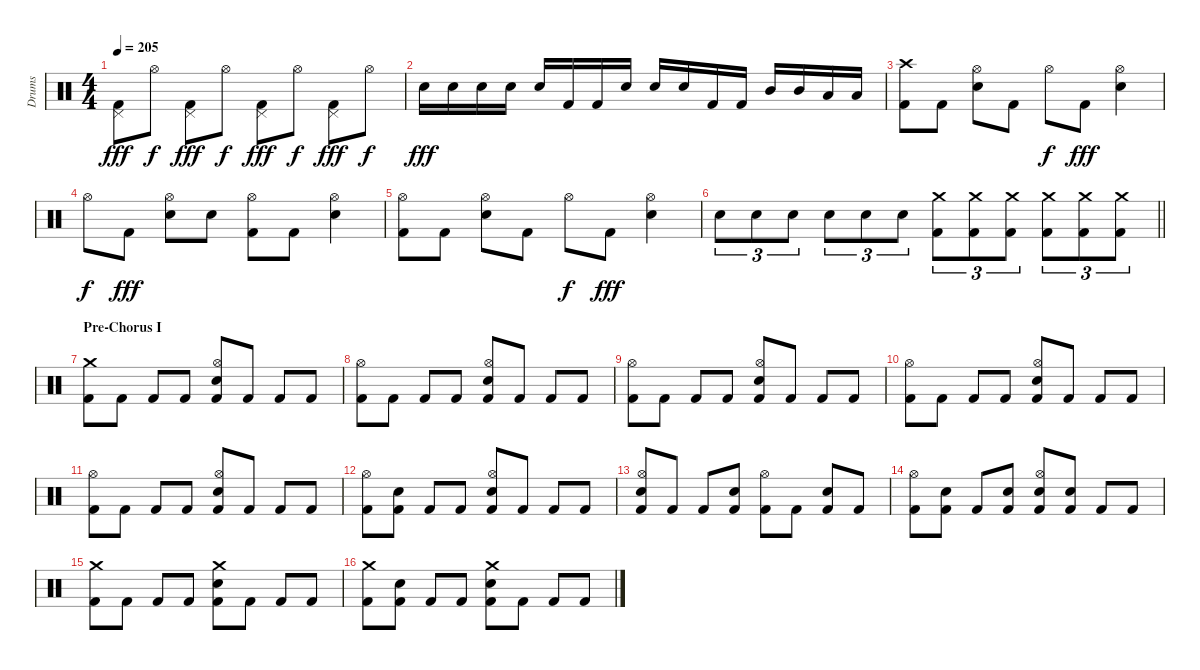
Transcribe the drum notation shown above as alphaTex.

\track ("Drums" "Drums") {instrument percussion}
\staff {score}
\articulation defaults
\ts (4 4)
\tempo 205
\clef neutral
\ks c
("Pedal Hi-Hat (hit)" "Kick (hit) 2").8{dy fff} "Hi-Hat (open)".8{dy f} ("Pedal Hi-Hat (hit)" "Kick (hit) 2").8{dy fff} "Hi-Hat (open)".8{dy f} ("Pedal Hi-Hat (hit)" "Kick (hit) 2").8{dy fff} "Hi-Hat (open)".8{dy f} ("Pedal Hi-Hat (hit)" "Kick (hit) 2").8{dy fff} "Hi-Hat (open)".8{dy f} |
"Snare (hit) 2".16{dy fff} "Snare (hit) 2".16 "Snare (hit) 2".16 "Snare (hit) 2".16 "Snare (hit) 2".16 "Kick (hit) 2".16 "Kick (hit) 2".16 "Snare (hit) 2".16 "Snare (hit) 2".16 "Snare (hit) 2".16 "Kick (hit) 2".16 "Kick (hit) 2".16 "Mid Tom (hit)".16 "Mid Tom (hit)".16 "Low Tom (hit)".16 "Low Tom (hit)".16 |
("Crash high (hit)" "Kick (hit) 2").8 "Kick (hit) 2".8 ("Hi-Hat (open)" "Snare (hit) 2").8 "Kick (hit) 2".8 "Hi-Hat (open)".8{dy f} "Kick (hit) 2".8{dy fff} ("Hi-Hat (open)" "Snare (hit) 2").4 |
"Hi-Hat (open)".8{dy f} "Kick (hit) 2".8{dy fff} ("Hi-Hat (open)" "Snare (hit) 2").8 "Snare (hit) 2".8 ("Hi-Hat (open)" "Kick (hit) 2").8 "Kick (hit) 2".8 ("Hi-Hat (open)" "Snare (hit) 2").4 |
("Hi-Hat (open)" "Kick (hit) 2").8 "Kick (hit) 2".8 ("Hi-Hat (open)" "Snare (hit) 2").8 "Kick (hit) 2".8 "Hi-Hat (open)".8{dy f} "Kick (hit) 2".8{dy fff} ("Hi-Hat (open)" "Snare (hit) 2").4 |
\barLineRight lightlight "Snare (hit) 2".8{tu (3 2)} "Snare (hit) 2".8{tu (3 2)} "Snare (hit) 2".8{tu (3 2)} "Snare (hit) 2".8{tu (3 2)} "Snare (hit) 2".8{tu (3 2)} "Snare (hit) 2".8{tu (3 2)}
("Crash medium (hit)" "Kick (hit) 2").8{tu (3 2)} ("Crash medium (hit)" "Kick (hit) 2").8{tu (3 2)} ("Crash medium (hit)" "Kick (hit) 2").8{tu (3 2)} ("Crash medium (hit)" "Kick (hit) 2").8{tu (3 2)} ("Crash medium (hit)" "Kick (hit) 2").8{tu (3 2)} ("Crash medium (hit)" "Kick (hit) 2").8{tu (3 2)} |
\section ("" "Pre-Chorus I")
("Crash medium (hit)" "Kick (hit) 2").8 "Kick (hit) 2".8 "Kick (hit) 2".8 "Kick (hit) 2".8 ("Hi-Hat (open)" "Snare (hit) 2" "Kick (hit) 2").8 "Kick (hit) 2".8 "Kick (hit) 2".8 "Kick (hit) 2".8 |
("Hi-Hat (open)" "Kick (hit) 2").8 "Kick (hit) 2".8 "Kick (hit) 2".8 "Kick (hit) 2".8 ("Hi-Hat (open)" "Snare (hit) 2" "Kick (hit) 2").8 "Kick (hit) 2".8 "Kick (hit) 2".8 "Kick (hit) 2".8 |
("Hi-Hat (open)" "Kick (hit) 2").8 "Kick (hit) 2".8 "Kick (hit) 2".8 "Kick (hit) 2".8 ("Hi-Hat (open)" "Snare (hit) 2" "Kick (hit) 2").8 "Kick (hit) 2".8 "Kick (hit) 2".8 "Kick (hit) 2".8 |
("Hi-Hat (open)" "Kick (hit) 2").8 "Kick (hit) 2".8 "Kick (hit) 2".8 "Kick (hit) 2".8 ("Hi-Hat (open)" "Snare (hit) 2" "Kick (hit) 2").8 "Kick (hit) 2".8 "Kick (hit) 2".8 "Kick (hit) 2".8 |
("Hi-Hat (open)" "Kick (hit) 2").8 "Kick (hit) 2".8 "Kick (hit) 2".8 "Kick (hit) 2".8 ("Hi-Hat (open)" "Snare (hit) 2" "Kick (hit) 2").8 "Kick (hit) 2".8 "Kick (hit) 2".8 "Kick (hit) 2".8 |
("Hi-Hat (open)" "Kick (hit) 2").8 ("Snare (hit) 2" "Kick (hit) 2").8 "Kick (hit) 2".8 "Kick (hit) 2".8 ("Hi-Hat (open)" "Snare (hit) 2" "Kick (hit) 2").8 "Kick (hit) 2".8 "Kick (hit) 2".8 "Kick (hit) 2".8 |
("Hi-Hat (open)" "Snare (hit) 2" "Kick (hit) 2").8 "Kick (hit) 2".8 "Kick (hit) 2".8 ("Snare (hit) 2" "Kick (hit) 2").8 ("Hi-Hat (open)" "Kick (hit) 2").8 "Kick (hit) 2".8 ("Snare (hit) 2" "Kick (hit) 2").8 "Kick (hit) 2".8 |
("Hi-Hat (open)" "Kick (hit) 2").8 ("Snare (hit) 2" "Kick (hit) 2").8 "Kick (hit) 2".8 ("Snare (hit) 2" "Kick (hit) 2").8 ("Hi-Hat (open)" "Snare (hit) 2" "Kick (hit) 2").8 ("Snare (hit) 2" "Kick (hit) 2").8 "Kick (hit) 2".8 "Kick (hit) 2".8 |
("Crash medium (hit)" "Kick (hit) 2").8 "Kick (hit) 2".8 "Kick (hit) 2".8 "Kick (hit) 2".8 ("Crash medium (hit)" "Snare (hit) 2" "Kick (hit) 2").8 "Kick (hit) 2".8 "Kick (hit) 2".8 "Kick (hit) 2".8 |
("Crash medium (hit)" "Kick (hit) 2").8 ("Snare (hit) 2" "Kick (hit) 2").8 "Kick (hit) 2".8 "Kick (hit) 2".8 ("Crash medium (hit)" "Snare (hit) 2" "Kick (hit) 2").8 "Kick (hit) 2".8 "Kick (hit) 2".8 "Kick (hit) 2".8
